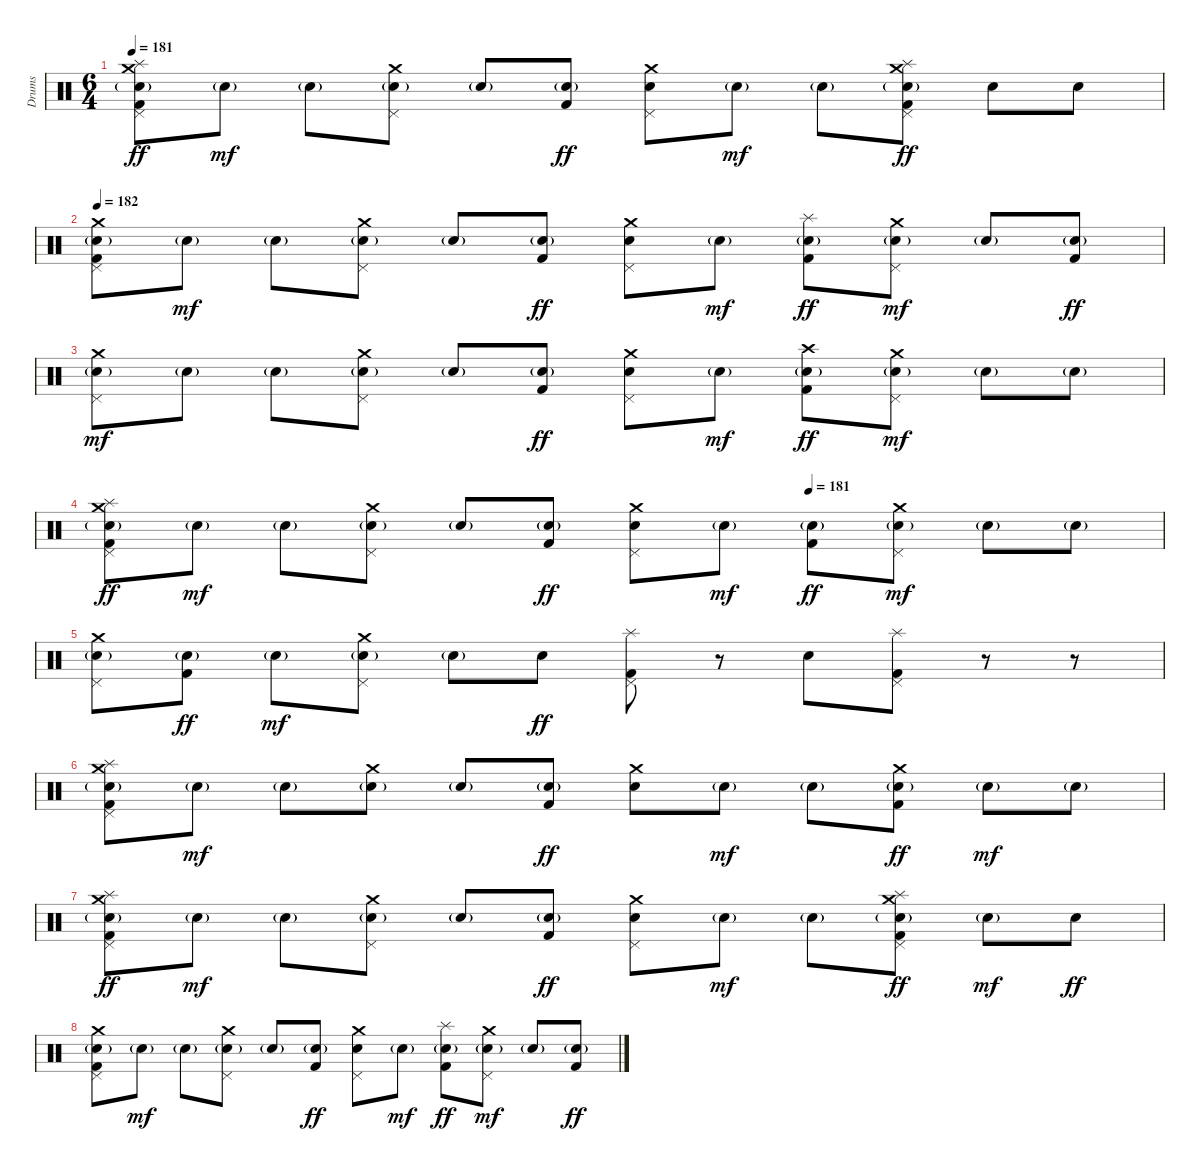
\track ("Drums" "Drums") {instrument percussion}
\staff {score}
\articulation defaults
\ts (6 4)
\tempo 181
\clef neutral
\ks c
("Crash medium (hit)" "Splash (hit)" "Pedal Hi-Hat (hit)" "Electric Snare (hit)"{g} "Kick (hit) 2").8{dy ff} "Electric Snare (hit)"{g}.8{dy mf} "Electric Snare (hit)"{g}.8 ("Crash medium (hit)" "Pedal Hi-Hat (hit)" "Electric Snare (hit)"{g}).8 "Electric Snare (hit)"{g}.8 ("Electric Snare (hit)"{g} "Kick (hit) 2").8{dy ff} ("Crash medium (hit)" "Pedal Hi-Hat (hit)" "Electric Snare (hit)").8 "Electric Snare (hit)"{g}.8{dy mf} "Electric Snare (hit)"{g}.8 ("Crash medium (hit)" "Splash (hit)" "Pedal Hi-Hat (hit)" "Electric Snare (hit)"{g} "Kick (hit) 2").8{dy ff} "Electric Snare (hit)".8 "Electric Snare (hit)".8 |
\tempo 182
("Crash medium (hit)" "Pedal Hi-Hat (hit)" "Electric Snare (hit)"{g} "Kick (hit) 2").8 "Electric Snare (hit)"{g}.8{dy mf} "Electric Snare (hit)"{g}.8 ("Crash medium (hit)" "Pedal Hi-Hat (hit)" "Electric Snare (hit)"{g}).8 "Electric Snare (hit)"{g}.8 ("Electric Snare (hit)"{g} "Kick (hit) 2").8{dy ff} ("Crash medium (hit)" "Pedal Hi-Hat (hit)" "Electric Snare (hit)").8 "Electric Snare (hit)"{g}.8{dy mf} ("Splash (hit)" "Electric Snare (hit)"{g} "Kick (hit) 2").8{dy ff} ("Crash medium (hit)" "Pedal Hi-Hat (hit)" "Electric Snare (hit)"{g}).8{dy mf} "Electric Snare (hit)"{g}.8 ("Electric Snare (hit)"{g} "Kick (hit) 2").8{dy ff} |
("Crash medium (hit)" "Pedal Hi-Hat (hit)" "Electric Snare (hit)"{g}).8{dy mf} "Electric Snare (hit)"{g}.8 "Electric Snare (hit)"{g}.8 ("Crash medium (hit)" "Pedal Hi-Hat (hit)" "Electric Snare (hit)"{g}).8 "Electric Snare (hit)"{g}.8 ("Electric Snare (hit)"{g} "Kick (hit) 2").8{dy ff} ("Crash medium (hit)" "Pedal Hi-Hat (hit)" "Electric Snare (hit)").8 "Electric Snare (hit)"{g}.8{dy mf} ("Crash high (hit)" "Electric Snare (hit)"{g} "Kick (hit) 2").8{dy ff} ("Crash medium (hit)" "Pedal Hi-Hat (hit)" "Electric Snare (hit)"{g}).8{dy mf} "Electric Snare (hit)"{g}.8 "Electric Snare (hit)"{g}.8 |
\tempo (181 0.6666666666666666)
("Crash medium (hit)" "Splash (hit)" "Pedal Hi-Hat (hit)" "Electric Snare (hit)"{g} "Kick (hit) 2").8{dy ff} "Electric Snare (hit)"{g}.8{dy mf} "Electric Snare (hit)"{g}.8 ("Crash medium (hit)" "Pedal Hi-Hat (hit)" "Electric Snare (hit)"{g}).8 "Electric Snare (hit)"{g}.8 ("Electric Snare (hit)"{g} "Kick (hit) 2").8{dy ff} ("Crash medium (hit)" "Pedal Hi-Hat (hit)" "Electric Snare (hit)").8 "Electric Snare (hit)"{g}.8{dy mf} ("Electric Snare (hit)"{g} "Kick (hit) 2").8{dy ff} ("Crash medium (hit)" "Pedal Hi-Hat (hit)" "Electric Snare (hit)"{g}).8{dy mf} "Electric Snare (hit)"{g}.8 "Electric Snare (hit)"{g}.8 |
("Crash medium (hit)" "Pedal Hi-Hat (hit)" "Electric Snare (hit)"{g}).8 ("Electric Snare (hit)"{g} "Kick (hit) 2").8{dy ff} "Electric Snare (hit)"{g}.8{dy mf} ("Crash medium (hit)" "Pedal Hi-Hat (hit)" "Electric Snare (hit)"{g}).8 "Electric Snare (hit)"{g}.8 "Electric Snare (hit)".8{dy ff} ("Splash (hit)" "Pedal Hi-Hat (hit)" "Kick (hit) 2").8 r.8 "Electric Snare (hit)".8 ("Splash (hit)" "Pedal Hi-Hat (hit)" "Kick (hit) 2").8 r.8 r.8 |
("Crash medium (hit)" "Splash (hit)" "Pedal Hi-Hat (hit)" "Electric Snare (hit)"{g} "Kick (hit) 2").8 "Electric Snare (hit)"{g}.8{dy mf} "Electric Snare (hit)"{g}.8 ("Crash medium (hit)" "Electric Snare (hit)"{g}).8 "Electric Snare (hit)"{g}.8 ("Electric Snare (hit)"{g} "Kick (hit) 2").8{dy ff} ("Crash medium (hit)" "Electric Snare (hit)").8 "Electric Snare (hit)"{g}.8{dy mf} "Electric Snare (hit)"{g}.8 ("Crash medium (hit)" "Electric Snare (hit)"{g} "Kick (hit) 2").8{dy ff} "Electric Snare (hit)"{g}.8{dy mf} "Electric Snare (hit)"{g}.8 |
("Crash medium (hit)" "Splash (hit)" "Pedal Hi-Hat (hit)" "Electric Snare (hit)"{g} "Kick (hit) 2").8{dy ff} "Electric Snare (hit)"{g}.8{dy mf} "Electric Snare (hit)"{g}.8 ("Crash medium (hit)" "Pedal Hi-Hat (hit)" "Electric Snare (hit)"{g}).8 "Electric Snare (hit)"{g}.8 ("Electric Snare (hit)"{g} "Kick (hit) 2").8{dy ff} ("Crash medium (hit)" "Pedal Hi-Hat (hit)" "Electric Snare (hit)").8 "Electric Snare (hit)"{g}.8{dy mf} "Electric Snare (hit)"{g}.8 ("Crash medium (hit)" "Splash (hit)" "Pedal Hi-Hat (hit)" "Electric Snare (hit)"{g} "Kick (hit) 2").8{dy ff} "Electric Snare (hit)"{g}.8{dy mf} "Electric Snare (hit)".8{dy ff} |
("Crash medium (hit)" "Pedal Hi-Hat (hit)" "Electric Snare (hit)"{g} "Kick (hit) 2").8 "Electric Snare (hit)"{g}.8{dy mf} "Electric Snare (hit)"{g}.8 ("Crash medium (hit)" "Pedal Hi-Hat (hit)" "Electric Snare (hit)"{g}).8 "Electric Snare (hit)"{g}.8 ("Electric Snare (hit)"{g} "Kick (hit) 2").8{dy ff} ("Crash medium (hit)" "Pedal Hi-Hat (hit)" "Electric Snare (hit)").8 "Electric Snare (hit)"{g}.8{dy mf} ("Splash (hit)" "Electric Snare (hit)"{g} "Kick (hit) 2").8{dy ff} ("Crash medium (hit)" "Pedal Hi-Hat (hit)" "Electric Snare (hit)"{g}).8{dy mf} "Electric Snare (hit)"{g}.8 ("Electric Snare (hit)"{g} "Kick (hit) 2").8{dy ff}
